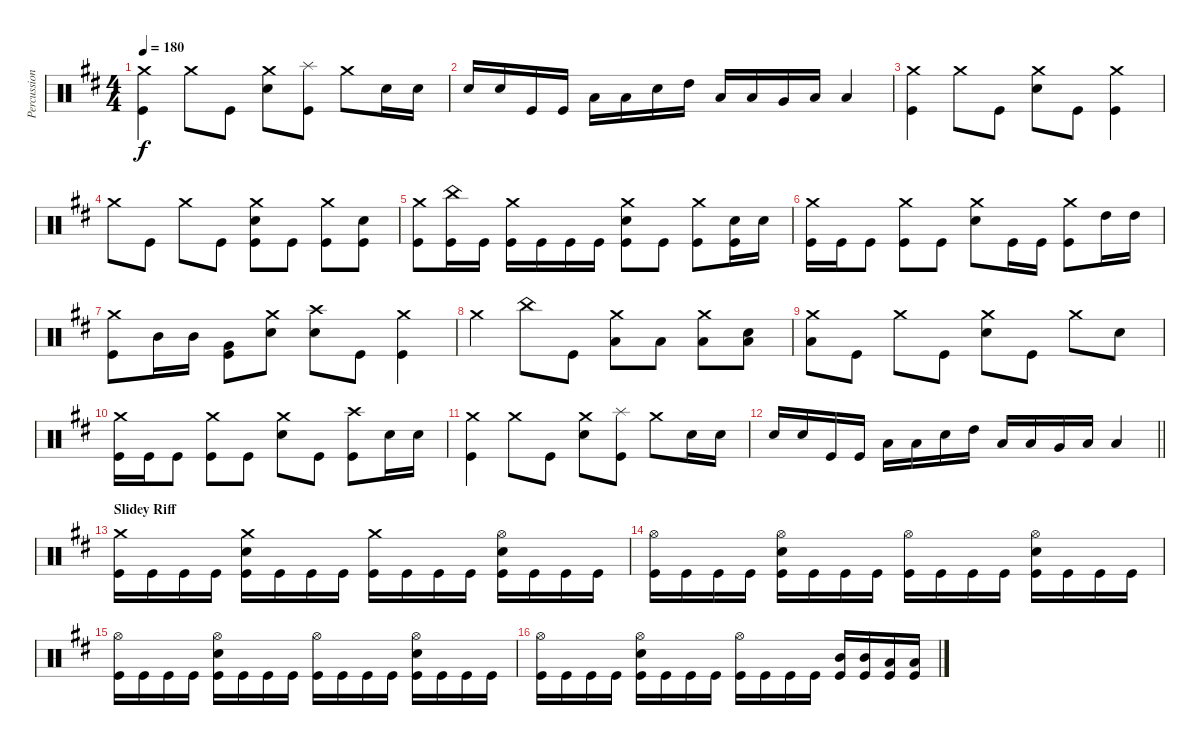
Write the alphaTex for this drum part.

\track ("Percussion" "Percussion") {instrument percussion}
\staff {score}
\articulation defaults
\ts (4 4)
\tempo 180
\clef neutral
\ks d
("Crash medium (hit)" "Kick (hit)").4{dy f} "Crash medium (hit)".8 "Kick (hit)".8 ("Crash medium (hit)" "Electric Snare (hit)").8 ("Splash (hit)" "Kick (hit)").8 "Crash medium (hit)".8 "Electric Snare (hit)".16 "Electric Snare (hit)".16 |
"Electric Snare (hit)".16 "Electric Snare (hit)".16 "Kick (hit)".16 "Kick (hit)".16 "Low Tom (hit)".16 "Low Tom (hit)".16 "Electric Snare (hit)".16 "High Tom (hit)".16 "Low Tom (hit)".16 "Low Tom (hit)".16 "Very Low Tom (hit)".16 "Low Floor Tom (hit)".16 "Low Floor Tom (hit)".4 |
("Crash medium (hit)" "Kick (hit)").4 "Crash medium (hit)".8 "Kick (hit)".8 ("Crash medium (hit)" "Electric Snare (hit)").8 "Kick (hit)".8 ("Crash medium (hit)" "Kick (hit)").4 |
"Crash medium (hit)".8 "Kick (hit)".8 "Crash medium (hit)".8 "Kick (hit)".8 ("Crash medium (hit)" "Electric Snare (hit)" "Kick (hit)").8 "Kick (hit)".8 ("Crash medium (hit)" "Kick (hit)").8 ("Electric Snare (hit)" "Kick (hit)").8 |
("Crash medium (hit)" "Kick (hit)").8 ("China (hit)" "Kick (hit)").16 "Kick (hit)".16 ("Crash medium (hit)" "Kick (hit)").16 "Kick (hit)".16 "Kick (hit)".16 "Kick (hit)".16 ("Crash medium (hit)" "Electric Snare (hit)" "Kick (hit)").8 "Kick (hit)".8 ("Crash medium (hit)" "Kick (hit)").8 ("Electric Snare (hit)" "Kick (hit)").16 "Electric Snare (hit)".16 |
("Crash medium (hit)" "Kick (hit)").16 "Kick (hit)".16 "Kick (hit)".8 ("Crash medium (hit)" "Kick (hit)").8 "Kick (hit)".8 ("Crash medium (hit)" "Electric Snare (hit)").8 "Kick (hit)".16 "Kick (hit)".16 ("Crash medium (hit)" "Kick (hit)").8 "High Tom (hit)".16 "High Tom (hit)".16 |
("Crash medium (hit)" "Kick (hit)").8 "Mid Tom (hit)".16 "Mid Tom (hit)".16 ("Very Low Tom (hit)" "Kick (hit)").8 ("Crash medium (hit)" "Electric Snare (hit)").8 ("Crash high (hit)" "Electric Snare (hit)").8 "Kick (hit)".8 ("Crash medium (hit)" "Kick (hit)").4 |
"Crash medium (hit)".4 "China (hit)".8 "Kick (hit)".8 ("Crash medium (hit)" "Low Floor Tom (hit)").8 "Low Floor Tom (hit)".8 ("Crash medium (hit)" "Low Floor Tom (hit)").8 ("Electric Snare (hit)" "Low Floor Tom (hit)").8 |
("Crash medium (hit)" "Low Floor Tom (hit)").8 "Kick (hit)".8 "Crash medium (hit)".8 "Kick (hit)".8 ("Crash medium (hit)" "Electric Snare (hit)").8 "Kick (hit)".8 "Crash medium (hit)".8 "Electric Snare (hit)".8 |
("Crash medium (hit)" "Kick (hit)").16 "Kick (hit)".16 "Kick (hit)".8 ("Crash medium (hit)" "Kick (hit)").8 "Kick (hit)".8 ("Crash medium (hit)" "Electric Snare (hit)").8 "Kick (hit)".8 ("Crash high (hit)" "Kick (hit)").8 "Electric Snare (hit)".16 "Electric Snare (hit)".16 |
("Crash medium (hit)" "Kick (hit)").4 "Crash medium (hit)".8 "Kick (hit)".8 ("Crash medium (hit)" "Electric Snare (hit)").8 ("Splash (hit)" "Kick (hit)").8 "Crash medium (hit)".8 "Electric Snare (hit)".16 "Electric Snare (hit)".16 |
\barLineRight lightlight "Electric Snare (hit)".16 "Electric Snare (hit)".16 "Kick (hit)".16 "Kick (hit)".16 "Low Tom (hit)".16 "Low Tom (hit)".16 "Electric Snare (hit)".16 "High Tom (hit)".16 "Low Tom (hit)".16 "Low Tom (hit)".16 "Very Low Tom (hit)".16 "Low Floor Tom (hit)".16 "Low Floor Tom (hit)".4
|
\section ("" "Slidey Riff")
("Crash medium (hit)" "Kick (hit)").16 "Kick (hit)".16 "Kick (hit)".16 "Kick (hit)".16 ("Crash medium (hit)" "Electric Snare (hit)" "Kick (hit)").16 "Kick (hit)".16 "Kick (hit)".16 "Kick (hit)".16 ("Crash medium (hit)" "Kick (hit)").16 "Kick (hit)".16 "Kick (hit)".16 "Kick (hit)".16 ("Hi-Hat (open)" "Electric Snare (hit)" "Kick (hit)").16 "Kick (hit)".16 "Kick (hit)".16 "Kick (hit)".16 |
("Hi-Hat (open)" "Kick (hit)").16 "Kick (hit)".16 "Kick (hit)".16 "Kick (hit)".16 ("Hi-Hat (open)" "Electric Snare (hit)" "Kick (hit)").16 "Kick (hit)".16 "Kick (hit)".16 "Kick (hit)".16 ("Hi-Hat (open)" "Kick (hit)").16 "Kick (hit)".16 "Kick (hit)".16 "Kick (hit)".16 ("Hi-Hat (open)" "Electric Snare (hit)" "Kick (hit)").16 "Kick (hit)".16 "Kick (hit)".16 "Kick (hit)".16 |
("Hi-Hat (open)" "Kick (hit)").16 "Kick (hit)".16 "Kick (hit)".16 "Kick (hit)".16 ("Hi-Hat (open)" "Electric Snare (hit)" "Kick (hit)").16 "Kick (hit)".16 "Kick (hit)".16 "Kick (hit)".16 ("Hi-Hat (open)" "Kick (hit)").16 "Kick (hit)".16 "Kick (hit)".16 "Kick (hit)".16 ("Hi-Hat (open)" "Electric Snare (hit)" "Kick (hit)").16 "Kick (hit)".16 "Kick (hit)".16 "Kick (hit)".16 |
("Hi-Hat (open)" "Kick (hit)").16 "Kick (hit)".16 "Kick (hit)".16 "Kick (hit)".16 ("Hi-Hat (open)" "Electric Snare (hit)" "Kick (hit)").16 "Kick (hit)".16 "Kick (hit)".16 "Kick (hit)".16 ("Hi-Hat (open)" "Kick (hit)").16 "Kick (hit)".16 "Kick (hit)".16 "Kick (hit)".16 ("Mid Tom (hit)" "Kick (hit)").16 ("Mid Tom (hit)" "Kick (hit)").16 ("Low Tom (hit)" "Kick (hit)").16 ("Low Tom (hit)" "Kick (hit)").16
